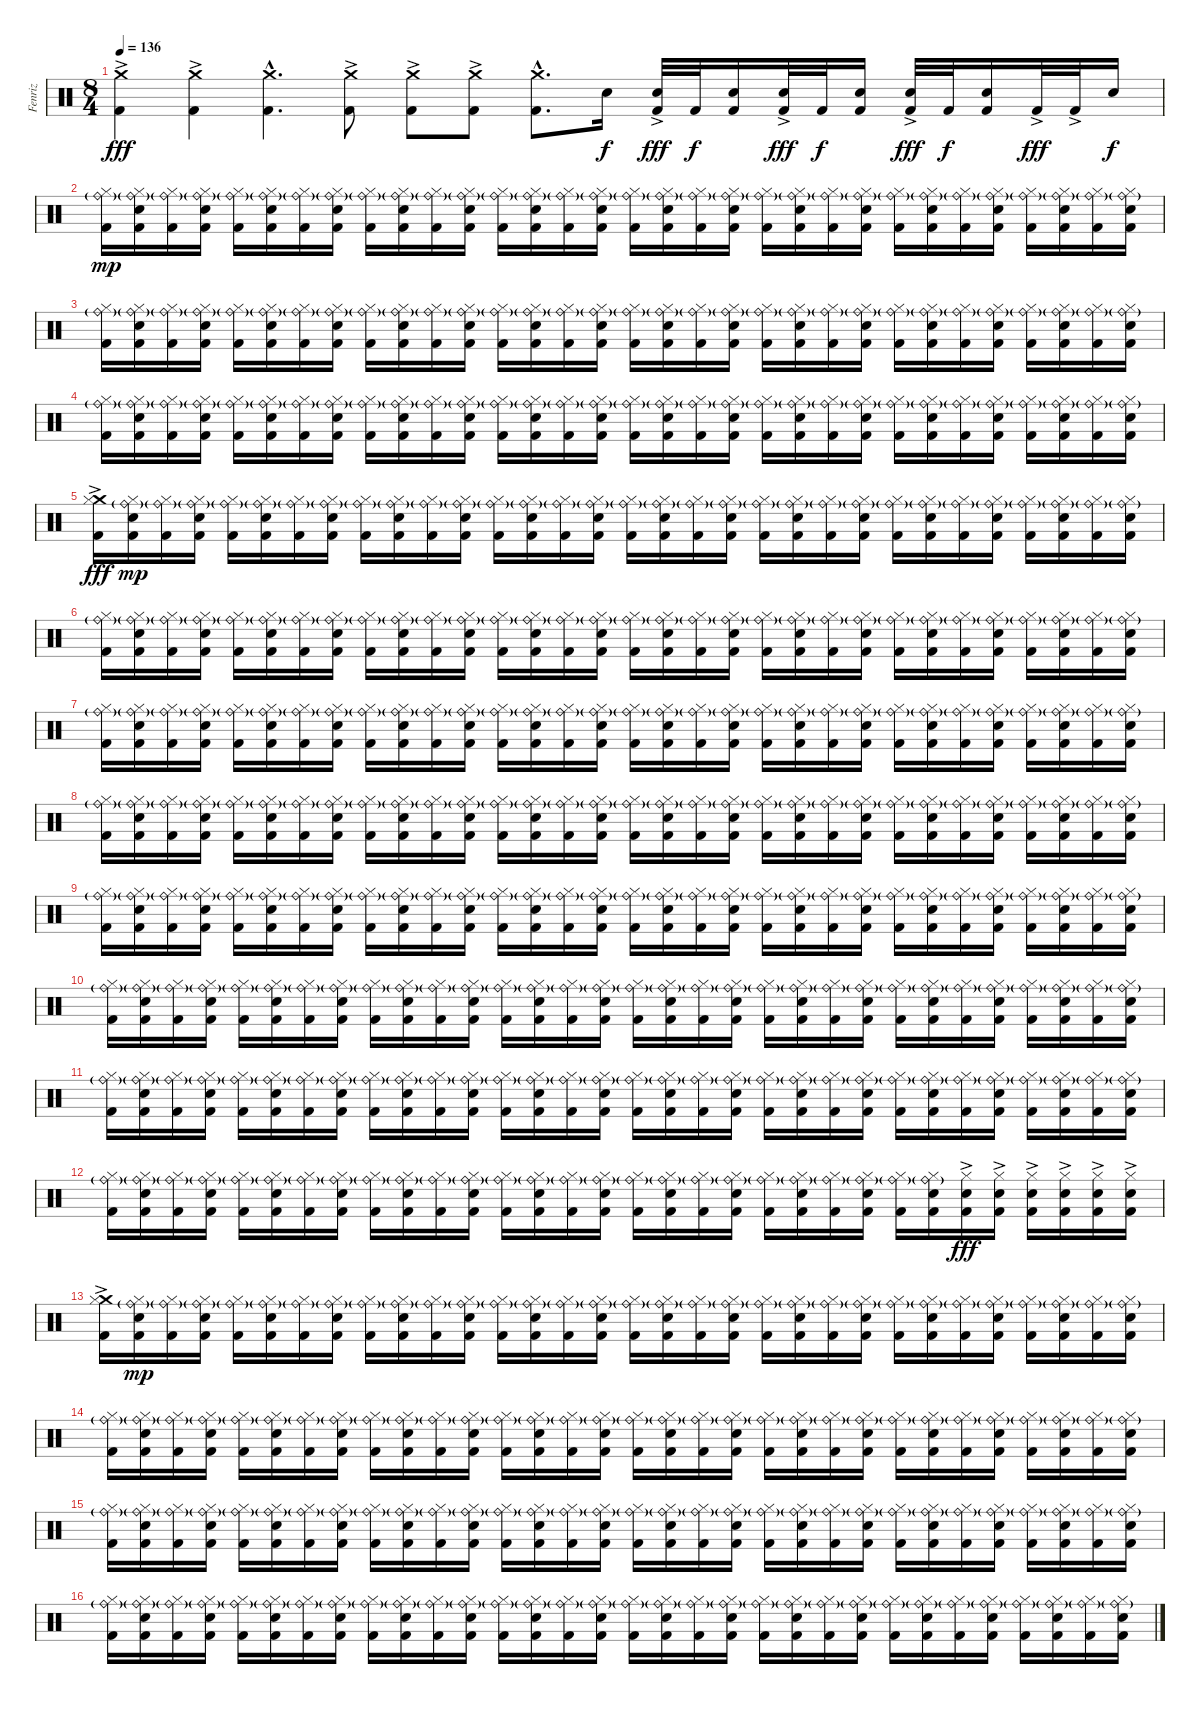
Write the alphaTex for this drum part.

\track ("Fenriz" "Fenriz") {instrument percussion}
\staff {score}
\articulation defaults
\ts (8 4)
\tempo 136
\clef neutral
\ks c
("Crash medium (hit)"{ac} "Kick (hit) 2"{ac}).4{dy fff} ("Crash medium (hit)"{ac} "Kick (hit) 2"{ac}).4 ("Crash medium (hit)"{hac} "Kick (hit) 2"{hac}).4{d} ("Crash medium (hit)"{ac} "Kick (hit) 2"{ac}).8 ("Crash medium (hit)"{ac} "Kick (hit) 2"{ac}).8 ("Crash medium (hit)"{ac} "Kick (hit) 2"{ac}).8 ("Crash medium (hit)"{hac} "Kick (hit) 2"{hac}).8{d} "Electric Snare (hit)".16{dy f} ("Snare (hit) 2"{ac} "Kick (hit) 2").32{dy fff} "Kick (hit) 2".32{dy f} ("Electric Snare (hit)" "Kick (hit) 2").16 ("Snare (hit) 2"{ac} "Kick (hit) 2").32{dy fff} "Kick (hit) 2".32{dy f} ("Electric Snare (hit)" "Kick (hit) 2").16 ("Snare (hit) 2"{ac} "Kick (hit) 2").32{dy fff} "Kick (hit) 2".32{dy f} ("Electric Snare (hit)" "Kick (hit) 2").16 "Kick (hit) 2"{ac}.32{dy fff} "Kick (hit) 2"{ac}.32 "Electric Snare (hit)".16{dy f} |
("Ride (bell)"{g} "Hi-Hat (closed)" "Kick (hit) 2").16{dy mp} ("Ride (bell)"{g} "Snare (hit) 2" "Hi-Hat (closed)" "Kick (hit) 2").16 ("Ride (bell)"{g} "Hi-Hat (closed)" "Kick (hit) 2").16 ("Ride (bell)"{g} "Snare (hit) 2" "Hi-Hat (closed)" "Kick (hit) 2").16 ("Ride (bell)"{g} "Hi-Hat (closed)" "Kick (hit) 2").16 ("Ride (bell)"{g} "Snare (hit) 2" "Hi-Hat (closed)" "Kick (hit) 2").16 ("Ride (bell)"{g} "Hi-Hat (closed)" "Kick (hit) 2").16 ("Ride (bell)"{g} "Snare (hit) 2" "Hi-Hat (closed)" "Kick (hit) 2").16 ("Ride (bell)"{g} "Hi-Hat (closed)" "Kick (hit) 2").16 ("Ride (bell)"{g} "Snare (hit) 2" "Hi-Hat (closed)" "Kick (hit) 2").16 ("Ride (bell)"{g} "Hi-Hat (closed)" "Kick (hit) 2").16 ("Ride (bell)"{g} "Snare (hit) 2" "Hi-Hat (closed)" "Kick (hit) 2").16 ("Ride (bell)"{g} "Hi-Hat (closed)" "Kick (hit) 2").16 ("Ride (bell)"{g} "Snare (hit) 2" "Hi-Hat (closed)" "Kick (hit) 2").16 ("Ride (bell)"{g} "Hi-Hat (closed)" "Kick (hit) 2").16 ("Ride (bell)"{g} "Snare (hit) 2" "Hi-Hat (closed)" "Kick (hit) 2").16 ("Ride (bell)"{g} "Hi-Hat (closed)" "Kick (hit) 2").16 ("Ride (bell)"{g} "Snare (hit) 2" "Hi-Hat (closed)" "Kick (hit) 2").16 ("Ride (bell)"{g} "Hi-Hat (closed)" "Kick (hit) 2").16 ("Ride (bell)"{g} "Snare (hit) 2" "Hi-Hat (closed)" "Kick (hit) 2").16 ("Ride (bell)"{g} "Hi-Hat (closed)" "Kick (hit) 2").16 ("Ride (bell)"{g} "Snare (hit) 2" "Hi-Hat (closed)" "Kick (hit) 2").16 ("Ride (bell)"{g} "Hi-Hat (closed)" "Kick (hit) 2").16 ("Ride (bell)"{g} "Snare (hit) 2" "Hi-Hat (closed)" "Kick (hit) 2").16 ("Ride (bell)"{g} "Hi-Hat (closed)" "Kick (hit) 2").16 ("Ride (bell)"{g} "Snare (hit) 2" "Hi-Hat (closed)" "Kick (hit) 2").16 ("Ride (bell)"{g} "Hi-Hat (closed)" "Kick (hit) 2").16 ("Ride (bell)"{g} "Snare (hit) 2" "Hi-Hat (closed)" "Kick (hit) 2").16 ("Ride (bell)"{g} "Hi-Hat (closed)" "Kick (hit) 2").16 ("Ride (bell)"{g} "Snare (hit) 2" "Hi-Hat (closed)" "Kick (hit) 2").16 ("Ride (bell)"{g} "Hi-Hat (closed)" "Kick (hit) 2").16 ("Ride (bell)"{g} "Snare (hit) 2" "Hi-Hat (closed)" "Kick (hit) 2").16 |
("Ride (bell)"{g} "Hi-Hat (closed)" "Kick (hit) 2").16 ("Ride (bell)"{g} "Snare (hit) 2" "Hi-Hat (closed)" "Kick (hit) 2").16 ("Ride (bell)"{g} "Hi-Hat (closed)" "Kick (hit) 2").16 ("Ride (bell)"{g} "Snare (hit) 2" "Hi-Hat (closed)" "Kick (hit) 2").16 ("Ride (bell)"{g} "Hi-Hat (closed)" "Kick (hit) 2").16 ("Ride (bell)"{g} "Snare (hit) 2" "Hi-Hat (closed)" "Kick (hit) 2").16 ("Ride (bell)"{g} "Hi-Hat (closed)" "Kick (hit) 2").16 ("Ride (bell)"{g} "Snare (hit) 2" "Hi-Hat (closed)" "Kick (hit) 2").16 ("Ride (bell)"{g} "Hi-Hat (closed)" "Kick (hit) 2").16 ("Ride (bell)"{g} "Snare (hit) 2" "Hi-Hat (closed)" "Kick (hit) 2").16 ("Ride (bell)"{g} "Hi-Hat (closed)" "Kick (hit) 2").16 ("Ride (bell)"{g} "Snare (hit) 2" "Hi-Hat (closed)" "Kick (hit) 2").16 ("Ride (bell)"{g} "Hi-Hat (closed)" "Kick (hit) 2").16 ("Ride (bell)"{g} "Snare (hit) 2" "Hi-Hat (closed)" "Kick (hit) 2").16 ("Ride (bell)"{g} "Hi-Hat (closed)" "Kick (hit) 2").16 ("Ride (bell)"{g} "Snare (hit) 2" "Hi-Hat (closed)" "Kick (hit) 2").16 ("Ride (bell)"{g} "Hi-Hat (closed)" "Kick (hit) 2").16 ("Ride (bell)"{g} "Snare (hit) 2" "Hi-Hat (closed)" "Kick (hit) 2").16 ("Ride (bell)"{g} "Hi-Hat (closed)" "Kick (hit) 2").16 ("Ride (bell)"{g} "Snare (hit) 2" "Hi-Hat (closed)" "Kick (hit) 2").16 ("Ride (bell)"{g} "Hi-Hat (closed)" "Kick (hit) 2").16 ("Ride (bell)"{g} "Snare (hit) 2" "Hi-Hat (closed)" "Kick (hit) 2").16 ("Ride (bell)"{g} "Hi-Hat (closed)" "Kick (hit) 2").16 ("Ride (bell)"{g} "Snare (hit) 2" "Hi-Hat (closed)" "Kick (hit) 2").16 ("Ride (bell)"{g} "Hi-Hat (closed)" "Kick (hit) 2").16 ("Ride (bell)"{g} "Snare (hit) 2" "Hi-Hat (closed)" "Kick (hit) 2").16 ("Ride (bell)"{g} "Hi-Hat (closed)" "Kick (hit) 2").16 ("Ride (bell)"{g} "Snare (hit) 2" "Hi-Hat (closed)" "Kick (hit) 2").16 ("Ride (bell)"{g} "Hi-Hat (closed)" "Kick (hit) 2").16 ("Ride (bell)"{g} "Snare (hit) 2" "Hi-Hat (closed)" "Kick (hit) 2").16 ("Ride (bell)"{g} "Hi-Hat (closed)" "Kick (hit) 2").16 ("Ride (bell)"{g} "Snare (hit) 2" "Hi-Hat (closed)" "Kick (hit) 2").16 |
("Ride (bell)"{g} "Hi-Hat (closed)" "Kick (hit) 2").16 ("Ride (bell)"{g} "Snare (hit) 2" "Hi-Hat (closed)" "Kick (hit) 2").16 ("Ride (bell)"{g} "Hi-Hat (closed)" "Kick (hit) 2").16 ("Ride (bell)"{g} "Snare (hit) 2" "Hi-Hat (closed)" "Kick (hit) 2").16 ("Ride (bell)"{g} "Hi-Hat (closed)" "Kick (hit) 2").16 ("Ride (bell)"{g} "Snare (hit) 2" "Hi-Hat (closed)" "Kick (hit) 2").16 ("Ride (bell)"{g} "Hi-Hat (closed)" "Kick (hit) 2").16 ("Ride (bell)"{g} "Snare (hit) 2" "Hi-Hat (closed)" "Kick (hit) 2").16 ("Ride (bell)"{g} "Hi-Hat (closed)" "Kick (hit) 2").16 ("Ride (bell)"{g} "Snare (hit) 2" "Hi-Hat (closed)" "Kick (hit) 2").16 ("Ride (bell)"{g} "Hi-Hat (closed)" "Kick (hit) 2").16 ("Ride (bell)"{g} "Snare (hit) 2" "Hi-Hat (closed)" "Kick (hit) 2").16 ("Ride (bell)"{g} "Hi-Hat (closed)" "Kick (hit) 2").16 ("Ride (bell)"{g} "Snare (hit) 2" "Hi-Hat (closed)" "Kick (hit) 2").16 ("Ride (bell)"{g} "Hi-Hat (closed)" "Kick (hit) 2").16 ("Ride (bell)"{g} "Snare (hit) 2" "Hi-Hat (closed)" "Kick (hit) 2").16 ("Ride (bell)"{g} "Hi-Hat (closed)" "Kick (hit) 2").16 ("Ride (bell)"{g} "Snare (hit) 2" "Hi-Hat (closed)" "Kick (hit) 2").16 ("Ride (bell)"{g} "Hi-Hat (closed)" "Kick (hit) 2").16 ("Ride (bell)"{g} "Snare (hit) 2" "Hi-Hat (closed)" "Kick (hit) 2").16 ("Ride (bell)"{g} "Hi-Hat (closed)" "Kick (hit) 2").16 ("Ride (bell)"{g} "Snare (hit) 2" "Hi-Hat (closed)" "Kick (hit) 2").16 ("Ride (bell)"{g} "Hi-Hat (closed)" "Kick (hit) 2").16 ("Ride (bell)"{g} "Snare (hit) 2" "Hi-Hat (closed)" "Kick (hit) 2").16 ("Ride (bell)"{g} "Hi-Hat (closed)" "Kick (hit) 2").16 ("Ride (bell)"{g} "Snare (hit) 2" "Hi-Hat (closed)" "Kick (hit) 2").16 ("Ride (bell)"{g} "Hi-Hat (closed)" "Kick (hit) 2").16 ("Ride (bell)"{g} "Snare (hit) 2" "Hi-Hat (closed)" "Kick (hit) 2").16 ("Ride (bell)"{g} "Hi-Hat (closed)" "Kick (hit) 2").16 ("Ride (bell)"{g} "Snare (hit) 2" "Hi-Hat (closed)" "Kick (hit) 2").16 ("Ride (bell)"{g} "Hi-Hat (closed)" "Kick (hit) 2").16 ("Ride (bell)"{g} "Snare (hit) 2" "Hi-Hat (closed)" "Kick (hit) 2").16 |
("Crash medium (hit)"{ac} "Hi-Hat (closed)" "Kick (hit) 2").16{dy fff} ("Ride (bell)"{g} "Snare (hit) 2" "Hi-Hat (closed)" "Kick (hit) 2").16{dy mp} ("Ride (bell)"{g} "Hi-Hat (closed)" "Kick (hit) 2").16 ("Ride (bell)"{g} "Snare (hit) 2" "Hi-Hat (closed)" "Kick (hit) 2").16 ("Ride (bell)"{g} "Hi-Hat (closed)" "Kick (hit) 2").16 ("Ride (bell)"{g} "Snare (hit) 2" "Hi-Hat (closed)" "Kick (hit) 2").16 ("Ride (bell)"{g} "Hi-Hat (closed)" "Kick (hit) 2").16 ("Ride (bell)"{g} "Snare (hit) 2" "Hi-Hat (closed)" "Kick (hit) 2").16 ("Ride (bell)"{g} "Hi-Hat (closed)" "Kick (hit) 2").16 ("Ride (bell)"{g} "Snare (hit) 2" "Hi-Hat (closed)" "Kick (hit) 2").16 ("Ride (bell)"{g} "Hi-Hat (closed)" "Kick (hit) 2").16 ("Ride (bell)"{g} "Snare (hit) 2" "Hi-Hat (closed)" "Kick (hit) 2").16 ("Ride (bell)"{g} "Hi-Hat (closed)" "Kick (hit) 2").16 ("Ride (bell)"{g} "Snare (hit) 2" "Hi-Hat (closed)" "Kick (hit) 2").16 ("Ride (bell)"{g} "Hi-Hat (closed)" "Kick (hit) 2").16 ("Ride (bell)"{g} "Snare (hit) 2" "Hi-Hat (closed)" "Kick (hit) 2").16 ("Ride (bell)"{g} "Hi-Hat (closed)" "Kick (hit) 2").16 ("Ride (bell)"{g} "Snare (hit) 2" "Hi-Hat (closed)" "Kick (hit) 2").16 ("Ride (bell)"{g} "Hi-Hat (closed)" "Kick (hit) 2").16 ("Ride (bell)"{g} "Snare (hit) 2" "Hi-Hat (closed)" "Kick (hit) 2").16 ("Ride (bell)"{g} "Hi-Hat (closed)" "Kick (hit) 2").16 ("Ride (bell)"{g} "Snare (hit) 2" "Hi-Hat (closed)" "Kick (hit) 2").16 ("Ride (bell)"{g} "Hi-Hat (closed)" "Kick (hit) 2").16 ("Ride (bell)"{g} "Snare (hit) 2" "Hi-Hat (closed)" "Kick (hit) 2").16 ("Ride (bell)"{g} "Hi-Hat (closed)" "Kick (hit) 2").16 ("Ride (bell)"{g} "Snare (hit) 2" "Hi-Hat (closed)" "Kick (hit) 2").16 ("Ride (bell)"{g} "Hi-Hat (closed)" "Kick (hit) 2").16 ("Ride (bell)"{g} "Snare (hit) 2" "Hi-Hat (closed)" "Kick (hit) 2").16 ("Ride (bell)"{g} "Hi-Hat (closed)" "Kick (hit) 2").16 ("Ride (bell)"{g} "Snare (hit) 2" "Hi-Hat (closed)" "Kick (hit) 2").16 ("Ride (bell)"{g} "Hi-Hat (closed)" "Kick (hit) 2").16 ("Ride (bell)"{g} "Snare (hit) 2" "Hi-Hat (closed)" "Kick (hit) 2").16 |
("Ride (bell)"{g} "Hi-Hat (closed)" "Kick (hit) 2").16 ("Ride (bell)"{g} "Snare (hit) 2" "Hi-Hat (closed)" "Kick (hit) 2").16 ("Ride (bell)"{g} "Hi-Hat (closed)" "Kick (hit) 2").16 ("Ride (bell)"{g} "Snare (hit) 2" "Hi-Hat (closed)" "Kick (hit) 2").16 ("Ride (bell)"{g} "Hi-Hat (closed)" "Kick (hit) 2").16 ("Ride (bell)"{g} "Snare (hit) 2" "Hi-Hat (closed)" "Kick (hit) 2").16 ("Ride (bell)"{g} "Hi-Hat (closed)" "Kick (hit) 2").16 ("Ride (bell)"{g} "Snare (hit) 2" "Hi-Hat (closed)" "Kick (hit) 2").16 ("Ride (bell)"{g} "Hi-Hat (closed)" "Kick (hit) 2").16 ("Ride (bell)"{g} "Snare (hit) 2" "Hi-Hat (closed)" "Kick (hit) 2").16 ("Ride (bell)"{g} "Hi-Hat (closed)" "Kick (hit) 2").16 ("Ride (bell)"{g} "Snare (hit) 2" "Hi-Hat (closed)" "Kick (hit) 2").16 ("Ride (bell)"{g} "Hi-Hat (closed)" "Kick (hit) 2").16 ("Ride (bell)"{g} "Snare (hit) 2" "Hi-Hat (closed)" "Kick (hit) 2").16 ("Ride (bell)"{g} "Hi-Hat (closed)" "Kick (hit) 2").16 ("Ride (bell)"{g} "Snare (hit) 2" "Hi-Hat (closed)" "Kick (hit) 2").16 ("Ride (bell)"{g} "Hi-Hat (closed)" "Kick (hit) 2").16 ("Ride (bell)"{g} "Snare (hit) 2" "Hi-Hat (closed)" "Kick (hit) 2").16 ("Ride (bell)"{g} "Hi-Hat (closed)" "Kick (hit) 2").16 ("Ride (bell)"{g} "Snare (hit) 2" "Hi-Hat (closed)" "Kick (hit) 2").16 ("Ride (bell)"{g} "Hi-Hat (closed)" "Kick (hit) 2").16 ("Ride (bell)"{g} "Snare (hit) 2" "Hi-Hat (closed)" "Kick (hit) 2").16 ("Ride (bell)"{g} "Hi-Hat (closed)" "Kick (hit) 2").16 ("Ride (bell)"{g} "Snare (hit) 2" "Hi-Hat (closed)" "Kick (hit) 2").16 ("Ride (bell)"{g} "Hi-Hat (closed)" "Kick (hit) 2").16 ("Ride (bell)"{g} "Snare (hit) 2" "Hi-Hat (closed)" "Kick (hit) 2").16 ("Ride (bell)"{g} "Hi-Hat (closed)" "Kick (hit) 2").16 ("Ride (bell)"{g} "Snare (hit) 2" "Hi-Hat (closed)" "Kick (hit) 2").16 ("Ride (bell)"{g} "Hi-Hat (closed)" "Kick (hit) 2").16 ("Ride (bell)"{g} "Snare (hit) 2" "Hi-Hat (closed)" "Kick (hit) 2").16 ("Ride (bell)"{g} "Hi-Hat (closed)" "Kick (hit) 2").16 ("Ride (bell)"{g} "Snare (hit) 2" "Hi-Hat (closed)" "Kick (hit) 2").16 |
("Ride (bell)"{g} "Hi-Hat (closed)" "Kick (hit) 2").16 ("Ride (bell)"{g} "Snare (hit) 2" "Hi-Hat (closed)" "Kick (hit) 2").16 ("Ride (bell)"{g} "Hi-Hat (closed)" "Kick (hit) 2").16 ("Ride (bell)"{g} "Snare (hit) 2" "Hi-Hat (closed)" "Kick (hit) 2").16 ("Ride (bell)"{g} "Hi-Hat (closed)" "Kick (hit) 2").16 ("Ride (bell)"{g} "Snare (hit) 2" "Hi-Hat (closed)" "Kick (hit) 2").16 ("Ride (bell)"{g} "Hi-Hat (closed)" "Kick (hit) 2").16 ("Ride (bell)"{g} "Snare (hit) 2" "Hi-Hat (closed)" "Kick (hit) 2").16 ("Ride (bell)"{g} "Hi-Hat (closed)" "Kick (hit) 2").16 ("Ride (bell)"{g} "Snare (hit) 2" "Hi-Hat (closed)" "Kick (hit) 2").16 ("Ride (bell)"{g} "Hi-Hat (closed)" "Kick (hit) 2").16 ("Ride (bell)"{g} "Snare (hit) 2" "Hi-Hat (closed)" "Kick (hit) 2").16 ("Ride (bell)"{g} "Hi-Hat (closed)" "Kick (hit) 2").16 ("Ride (bell)"{g} "Snare (hit) 2" "Hi-Hat (closed)" "Kick (hit) 2").16 ("Ride (bell)"{g} "Hi-Hat (closed)" "Kick (hit) 2").16 ("Ride (bell)"{g} "Snare (hit) 2" "Hi-Hat (closed)" "Kick (hit) 2").16 ("Ride (bell)"{g} "Hi-Hat (closed)" "Kick (hit) 2").16 ("Ride (bell)"{g} "Snare (hit) 2" "Hi-Hat (closed)" "Kick (hit) 2").16 ("Ride (bell)"{g} "Hi-Hat (closed)" "Kick (hit) 2").16 ("Ride (bell)"{g} "Snare (hit) 2" "Hi-Hat (closed)" "Kick (hit) 2").16 ("Ride (bell)"{g} "Hi-Hat (closed)" "Kick (hit) 2").16 ("Ride (bell)"{g} "Snare (hit) 2" "Hi-Hat (closed)" "Kick (hit) 2").16 ("Ride (bell)"{g} "Hi-Hat (closed)" "Kick (hit) 2").16 ("Ride (bell)"{g} "Snare (hit) 2" "Hi-Hat (closed)" "Kick (hit) 2").16 ("Ride (bell)"{g} "Hi-Hat (closed)" "Kick (hit) 2").16 ("Ride (bell)"{g} "Snare (hit) 2" "Hi-Hat (closed)" "Kick (hit) 2").16 ("Ride (bell)"{g} "Hi-Hat (closed)" "Kick (hit) 2").16 ("Ride (bell)"{g} "Snare (hit) 2" "Hi-Hat (closed)" "Kick (hit) 2").16 ("Ride (bell)"{g} "Hi-Hat (closed)" "Kick (hit) 2").16 ("Ride (bell)"{g} "Snare (hit) 2" "Hi-Hat (closed)" "Kick (hit) 2").16 ("Ride (bell)"{g} "Hi-Hat (closed)" "Kick (hit) 2").16 ("Ride (bell)"{g} "Snare (hit) 2" "Hi-Hat (closed)" "Kick (hit) 2").16 |
("Ride (bell)"{g} "Hi-Hat (closed)" "Kick (hit) 2").16 ("Ride (bell)"{g} "Snare (hit) 2" "Hi-Hat (closed)" "Kick (hit) 2").16 ("Ride (bell)"{g} "Hi-Hat (closed)" "Kick (hit) 2").16 ("Ride (bell)"{g} "Snare (hit) 2" "Hi-Hat (closed)" "Kick (hit) 2").16 ("Ride (bell)"{g} "Hi-Hat (closed)" "Kick (hit) 2").16 ("Ride (bell)"{g} "Snare (hit) 2" "Hi-Hat (closed)" "Kick (hit) 2").16 ("Ride (bell)"{g} "Hi-Hat (closed)" "Kick (hit) 2").16 ("Ride (bell)"{g} "Snare (hit) 2" "Hi-Hat (closed)" "Kick (hit) 2").16 ("Ride (bell)"{g} "Hi-Hat (closed)" "Kick (hit) 2").16 ("Ride (bell)"{g} "Snare (hit) 2" "Hi-Hat (closed)" "Kick (hit) 2").16 ("Ride (bell)"{g} "Hi-Hat (closed)" "Kick (hit) 2").16 ("Ride (bell)"{g} "Snare (hit) 2" "Hi-Hat (closed)" "Kick (hit) 2").16 ("Ride (bell)"{g} "Hi-Hat (closed)" "Kick (hit) 2").16 ("Ride (bell)"{g} "Snare (hit) 2" "Hi-Hat (closed)" "Kick (hit) 2").16 ("Ride (bell)"{g} "Hi-Hat (closed)" "Kick (hit) 2").16 ("Ride (bell)"{g} "Snare (hit) 2" "Hi-Hat (closed)" "Kick (hit) 2").16 ("Ride (bell)"{g} "Hi-Hat (closed)" "Kick (hit) 2").16 ("Ride (bell)"{g} "Snare (hit) 2" "Hi-Hat (closed)" "Kick (hit) 2").16 ("Ride (bell)"{g} "Hi-Hat (closed)" "Kick (hit) 2").16 ("Ride (bell)"{g} "Snare (hit) 2" "Hi-Hat (closed)" "Kick (hit) 2").16 ("Ride (bell)"{g} "Hi-Hat (closed)" "Kick (hit) 2").16 ("Ride (bell)"{g} "Snare (hit) 2" "Hi-Hat (closed)" "Kick (hit) 2").16 ("Ride (bell)"{g} "Hi-Hat (closed)" "Kick (hit) 2").16 ("Ride (bell)"{g} "Snare (hit) 2" "Hi-Hat (closed)" "Kick (hit) 2").16 ("Ride (bell)"{g} "Hi-Hat (closed)" "Kick (hit) 2").16 ("Ride (bell)"{g} "Snare (hit) 2" "Hi-Hat (closed)" "Kick (hit) 2").16 ("Ride (bell)"{g} "Hi-Hat (closed)" "Kick (hit) 2").16 ("Ride (bell)"{g} "Snare (hit) 2" "Hi-Hat (closed)" "Kick (hit) 2").16 ("Ride (bell)"{g} "Hi-Hat (closed)" "Kick (hit) 2").16 ("Ride (bell)"{g} "Snare (hit) 2" "Hi-Hat (closed)" "Kick (hit) 2").16 ("Ride (bell)"{g} "Hi-Hat (closed)" "Kick (hit) 2").16 ("Ride (bell)"{g} "Snare (hit) 2" "Hi-Hat (closed)" "Kick (hit) 2").16 |
("Ride (bell)"{g} "Hi-Hat (closed)" "Kick (hit) 2").16 ("Ride (bell)"{g} "Snare (hit) 2" "Hi-Hat (closed)" "Kick (hit) 2").16 ("Ride (bell)"{g} "Hi-Hat (closed)" "Kick (hit) 2").16 ("Ride (bell)"{g} "Snare (hit) 2" "Hi-Hat (closed)" "Kick (hit) 2").16 ("Ride (bell)"{g} "Hi-Hat (closed)" "Kick (hit) 2").16 ("Ride (bell)"{g} "Snare (hit) 2" "Hi-Hat (closed)" "Kick (hit) 2").16 ("Ride (bell)"{g} "Hi-Hat (closed)" "Kick (hit) 2").16 ("Ride (bell)"{g} "Snare (hit) 2" "Hi-Hat (closed)" "Kick (hit) 2").16 ("Ride (bell)"{g} "Hi-Hat (closed)" "Kick (hit) 2").16 ("Ride (bell)"{g} "Snare (hit) 2" "Hi-Hat (closed)" "Kick (hit) 2").16 ("Ride (bell)"{g} "Hi-Hat (closed)" "Kick (hit) 2").16 ("Ride (bell)"{g} "Snare (hit) 2" "Hi-Hat (closed)" "Kick (hit) 2").16 ("Ride (bell)"{g} "Hi-Hat (closed)" "Kick (hit) 2").16 ("Ride (bell)"{g} "Snare (hit) 2" "Hi-Hat (closed)" "Kick (hit) 2").16 ("Ride (bell)"{g} "Hi-Hat (closed)" "Kick (hit) 2").16 ("Ride (bell)"{g} "Snare (hit) 2" "Hi-Hat (closed)" "Kick (hit) 2").16 ("Ride (bell)"{g} "Hi-Hat (closed)" "Kick (hit) 2").16 ("Ride (bell)"{g} "Snare (hit) 2" "Hi-Hat (closed)" "Kick (hit) 2").16 ("Ride (bell)"{g} "Hi-Hat (closed)" "Kick (hit) 2").16 ("Ride (bell)"{g} "Snare (hit) 2" "Hi-Hat (closed)" "Kick (hit) 2").16 ("Ride (bell)"{g} "Hi-Hat (closed)" "Kick (hit) 2").16 ("Ride (bell)"{g} "Snare (hit) 2" "Hi-Hat (closed)" "Kick (hit) 2").16 ("Ride (bell)"{g} "Hi-Hat (closed)" "Kick (hit) 2").16 ("Ride (bell)"{g} "Snare (hit) 2" "Hi-Hat (closed)" "Kick (hit) 2").16 ("Ride (bell)"{g} "Hi-Hat (closed)" "Kick (hit) 2").16 ("Ride (bell)"{g} "Snare (hit) 2" "Hi-Hat (closed)" "Kick (hit) 2").16 ("Ride (bell)"{g} "Hi-Hat (closed)" "Kick (hit) 2").16 ("Ride (bell)"{g} "Snare (hit) 2" "Hi-Hat (closed)" "Kick (hit) 2").16 ("Ride (bell)"{g} "Hi-Hat (closed)" "Kick (hit) 2").16 ("Ride (bell)"{g} "Snare (hit) 2" "Hi-Hat (closed)" "Kick (hit) 2").16 ("Ride (bell)"{g} "Hi-Hat (closed)" "Kick (hit) 2").16 ("Ride (bell)"{g} "Snare (hit) 2" "Hi-Hat (closed)" "Kick (hit) 2").16 |
("Ride (bell)"{g} "Hi-Hat (closed)" "Kick (hit) 2").16 ("Ride (bell)"{g} "Snare (hit) 2" "Hi-Hat (closed)" "Kick (hit) 2").16 ("Ride (bell)"{g} "Hi-Hat (closed)" "Kick (hit) 2").16 ("Ride (bell)"{g} "Snare (hit) 2" "Hi-Hat (closed)" "Kick (hit) 2").16 ("Ride (bell)"{g} "Hi-Hat (closed)" "Kick (hit) 2").16 ("Ride (bell)"{g} "Snare (hit) 2" "Hi-Hat (closed)" "Kick (hit) 2").16 ("Ride (bell)"{g} "Hi-Hat (closed)" "Kick (hit) 2").16 ("Ride (bell)"{g} "Snare (hit) 2" "Hi-Hat (closed)" "Kick (hit) 2").16 ("Ride (bell)"{g} "Hi-Hat (closed)" "Kick (hit) 2").16 ("Ride (bell)"{g} "Snare (hit) 2" "Hi-Hat (closed)" "Kick (hit) 2").16 ("Ride (bell)"{g} "Hi-Hat (closed)" "Kick (hit) 2").16 ("Ride (bell)"{g} "Snare (hit) 2" "Hi-Hat (closed)" "Kick (hit) 2").16 ("Ride (bell)"{g} "Hi-Hat (closed)" "Kick (hit) 2").16 ("Ride (bell)"{g} "Snare (hit) 2" "Hi-Hat (closed)" "Kick (hit) 2").16 ("Ride (bell)"{g} "Hi-Hat (closed)" "Kick (hit) 2").16 ("Ride (bell)"{g} "Snare (hit) 2" "Hi-Hat (closed)" "Kick (hit) 2").16 ("Ride (bell)"{g} "Hi-Hat (closed)" "Kick (hit) 2").16 ("Ride (bell)"{g} "Snare (hit) 2" "Hi-Hat (closed)" "Kick (hit) 2").16 ("Ride (bell)"{g} "Hi-Hat (closed)" "Kick (hit) 2").16 ("Ride (bell)"{g} "Snare (hit) 2" "Hi-Hat (closed)" "Kick (hit) 2").16 ("Ride (bell)"{g} "Hi-Hat (closed)" "Kick (hit) 2").16 ("Ride (bell)"{g} "Snare (hit) 2" "Hi-Hat (closed)" "Kick (hit) 2").16 ("Ride (bell)"{g} "Hi-Hat (closed)" "Kick (hit) 2").16 ("Ride (bell)"{g} "Snare (hit) 2" "Hi-Hat (closed)" "Kick (hit) 2").16 ("Ride (bell)"{g} "Hi-Hat (closed)" "Kick (hit) 2").16 ("Ride (bell)"{g} "Snare (hit) 2" "Hi-Hat (closed)" "Kick (hit) 2").16 ("Ride (bell)"{g} "Hi-Hat (closed)" "Kick (hit) 2").16 ("Ride (bell)"{g} "Snare (hit) 2" "Hi-Hat (closed)" "Kick (hit) 2").16 ("Ride (bell)"{g} "Hi-Hat (closed)" "Kick (hit) 2").16 ("Ride (bell)"{g} "Snare (hit) 2" "Hi-Hat (closed)" "Kick (hit) 2").16 ("Ride (bell)"{g} "Hi-Hat (closed)" "Kick (hit) 2").16 ("Ride (bell)"{g} "Snare (hit) 2" "Hi-Hat (closed)" "Kick (hit) 2").16 |
("Ride (bell)"{g} "Hi-Hat (closed)" "Kick (hit) 2").16 ("Ride (bell)"{g} "Snare (hit) 2" "Hi-Hat (closed)" "Kick (hit) 2").16 ("Ride (bell)"{g} "Hi-Hat (closed)" "Kick (hit) 2").16 ("Ride (bell)"{g} "Snare (hit) 2" "Hi-Hat (closed)" "Kick (hit) 2").16 ("Ride (bell)"{g} "Hi-Hat (closed)" "Kick (hit) 2").16 ("Ride (bell)"{g} "Snare (hit) 2" "Hi-Hat (closed)" "Kick (hit) 2").16 ("Ride (bell)"{g} "Hi-Hat (closed)" "Kick (hit) 2").16 ("Ride (bell)"{g} "Snare (hit) 2" "Hi-Hat (closed)" "Kick (hit) 2").16 ("Ride (bell)"{g} "Hi-Hat (closed)" "Kick (hit) 2").16 ("Ride (bell)"{g} "Snare (hit) 2" "Hi-Hat (closed)" "Kick (hit) 2").16 ("Ride (bell)"{g} "Hi-Hat (closed)" "Kick (hit) 2").16 ("Ride (bell)"{g} "Snare (hit) 2" "Hi-Hat (closed)" "Kick (hit) 2").16 ("Ride (bell)"{g} "Hi-Hat (closed)" "Kick (hit) 2").16 ("Ride (bell)"{g} "Snare (hit) 2" "Hi-Hat (closed)" "Kick (hit) 2").16 ("Ride (bell)"{g} "Hi-Hat (closed)" "Kick (hit) 2").16 ("Ride (bell)"{g} "Snare (hit) 2" "Hi-Hat (closed)" "Kick (hit) 2").16 ("Ride (bell)"{g} "Hi-Hat (closed)" "Kick (hit) 2").16 ("Ride (bell)"{g} "Snare (hit) 2" "Hi-Hat (closed)" "Kick (hit) 2").16 ("Ride (bell)"{g} "Hi-Hat (closed)" "Kick (hit) 2").16 ("Ride (bell)"{g} "Snare (hit) 2" "Hi-Hat (closed)" "Kick (hit) 2").16 ("Ride (bell)"{g} "Hi-Hat (closed)" "Kick (hit) 2").16 ("Ride (bell)"{g} "Snare (hit) 2" "Hi-Hat (closed)" "Kick (hit) 2").16 ("Ride (bell)"{g} "Hi-Hat (closed)" "Kick (hit) 2").16 ("Ride (bell)"{g} "Snare (hit) 2" "Hi-Hat (closed)" "Kick (hit) 2").16 ("Ride (bell)"{g} "Hi-Hat (closed)" "Kick (hit) 2").16 ("Ride (bell)"{g} "Snare (hit) 2" "Hi-Hat (closed)" "Kick (hit) 2").16 ("Ride (bell)"{g} "Hi-Hat (closed)" "Kick (hit) 2").16 ("Ride (bell)"{g} "Snare (hit) 2" "Hi-Hat (closed)" "Kick (hit) 2").16 ("Ride (bell)"{g} "Hi-Hat (closed)" "Kick (hit) 2").16 ("Ride (bell)"{g} "Snare (hit) 2" "Hi-Hat (closed)" "Kick (hit) 2").16 ("Ride (bell)"{g} "Hi-Hat (closed)" "Kick (hit) 2").16 ("Ride (bell)"{g} "Snare (hit) 2" "Hi-Hat (closed)" "Kick (hit) 2").16 |
("Ride (bell)"{g} "Hi-Hat (closed)" "Kick (hit) 2").16 ("Ride (bell)"{g} "Snare (hit) 2" "Hi-Hat (closed)" "Kick (hit) 2").16 ("Ride (bell)"{g} "Hi-Hat (closed)" "Kick (hit) 2").16 ("Ride (bell)"{g} "Snare (hit) 2" "Hi-Hat (closed)" "Kick (hit) 2").16 ("Ride (bell)"{g} "Hi-Hat (closed)" "Kick (hit) 2").16 ("Ride (bell)"{g} "Snare (hit) 2" "Hi-Hat (closed)" "Kick (hit) 2").16 ("Ride (bell)"{g} "Hi-Hat (closed)" "Kick (hit) 2").16 ("Ride (bell)"{g} "Snare (hit) 2" "Hi-Hat (closed)" "Kick (hit) 2").16 ("Ride (bell)"{g} "Hi-Hat (closed)" "Kick (hit) 2").16 ("Ride (bell)"{g} "Snare (hit) 2" "Hi-Hat (closed)" "Kick (hit) 2").16 ("Ride (bell)"{g} "Hi-Hat (closed)" "Kick (hit) 2").16 ("Ride (bell)"{g} "Snare (hit) 2" "Hi-Hat (closed)" "Kick (hit) 2").16 ("Ride (bell)"{g} "Hi-Hat (closed)" "Kick (hit) 2").16 ("Ride (bell)"{g} "Snare (hit) 2" "Hi-Hat (closed)" "Kick (hit) 2").16 ("Ride (bell)"{g} "Hi-Hat (closed)" "Kick (hit) 2").16 ("Ride (bell)"{g} "Snare (hit) 2" "Hi-Hat (closed)" "Kick (hit) 2").16 ("Ride (bell)"{g} "Hi-Hat (closed)" "Kick (hit) 2").16 ("Ride (bell)"{g} "Snare (hit) 2" "Hi-Hat (closed)" "Kick (hit) 2").16 ("Ride (bell)"{g} "Hi-Hat (closed)" "Kick (hit) 2").16 ("Ride (bell)"{g} "Snare (hit) 2" "Hi-Hat (closed)" "Kick (hit) 2").16 ("Ride (bell)"{g} "Hi-Hat (closed)" "Kick (hit) 2").16 ("Ride (bell)"{g} "Snare (hit) 2" "Hi-Hat (closed)" "Kick (hit) 2").16 ("Ride (bell)"{g} "Hi-Hat (closed)" "Kick (hit) 2").16 ("Ride (bell)"{g} "Snare (hit) 2" "Hi-Hat (closed)" "Kick (hit) 2").16 ("Ride (bell)"{g} "Hi-Hat (closed)" "Kick (hit) 2").16 ("Ride (bell)"{g} "Snare (hit) 2" "Hi-Hat (closed)" "Kick (hit) 2").16 ("Snare (hit) 2"{ac} "Hi-Hat (closed)" "Kick (hit) 2").16{dy fff} ("Snare (hit) 2"{ac} "Hi-Hat (closed)" "Kick (hit) 2").16 ("Snare (hit) 2"{ac} "Hi-Hat (closed)" "Kick (hit) 2").16 ("Snare (hit) 2"{ac} "Hi-Hat (closed)" "Kick (hit) 2").16 ("Snare (hit) 2"{ac} "Hi-Hat (closed)" "Kick (hit) 2").16 ("Snare (hit) 2"{ac} "Hi-Hat (closed)" "Kick (hit) 2").16 |
("Crash medium (hit)"{ac} "Hi-Hat (closed)" "Kick (hit) 2").16 ("Ride (bell)"{g} "Snare (hit) 2" "Hi-Hat (closed)" "Kick (hit) 2").16{dy mp} ("Ride (bell)"{g} "Hi-Hat (closed)" "Kick (hit) 2").16 ("Ride (bell)"{g} "Snare (hit) 2" "Hi-Hat (closed)" "Kick (hit) 2").16 ("Ride (bell)"{g} "Hi-Hat (closed)" "Kick (hit) 2").16 ("Ride (bell)"{g} "Snare (hit) 2" "Hi-Hat (closed)" "Kick (hit) 2").16 ("Ride (bell)"{g} "Hi-Hat (closed)" "Kick (hit) 2").16 ("Ride (bell)"{g} "Snare (hit) 2" "Hi-Hat (closed)" "Kick (hit) 2").16 ("Ride (bell)"{g} "Hi-Hat (closed)" "Kick (hit) 2").16 ("Ride (bell)"{g} "Snare (hit) 2" "Hi-Hat (closed)" "Kick (hit) 2").16 ("Ride (bell)"{g} "Hi-Hat (closed)" "Kick (hit) 2").16 ("Ride (bell)"{g} "Snare (hit) 2" "Hi-Hat (closed)" "Kick (hit) 2").16 ("Ride (bell)"{g} "Hi-Hat (closed)" "Kick (hit) 2").16 ("Ride (bell)"{g} "Snare (hit) 2" "Hi-Hat (closed)" "Kick (hit) 2").16 ("Ride (bell)"{g} "Hi-Hat (closed)" "Kick (hit) 2").16 ("Ride (bell)"{g} "Snare (hit) 2" "Hi-Hat (closed)" "Kick (hit) 2").16 ("Ride (bell)"{g} "Hi-Hat (closed)" "Kick (hit) 2").16 ("Ride (bell)"{g} "Snare (hit) 2" "Hi-Hat (closed)" "Kick (hit) 2").16 ("Ride (bell)"{g} "Hi-Hat (closed)" "Kick (hit) 2").16 ("Ride (bell)"{g} "Snare (hit) 2" "Hi-Hat (closed)" "Kick (hit) 2").16 ("Ride (bell)"{g} "Hi-Hat (closed)" "Kick (hit) 2").16 ("Ride (bell)"{g} "Snare (hit) 2" "Hi-Hat (closed)" "Kick (hit) 2").16 ("Ride (bell)"{g} "Hi-Hat (closed)" "Kick (hit) 2").16 ("Ride (bell)"{g} "Snare (hit) 2" "Hi-Hat (closed)" "Kick (hit) 2").16 ("Ride (bell)"{g} "Hi-Hat (closed)" "Kick (hit) 2").16 ("Ride (bell)"{g} "Snare (hit) 2" "Hi-Hat (closed)" "Kick (hit) 2").16 ("Ride (bell)"{g} "Hi-Hat (closed)" "Kick (hit) 2").16 ("Ride (bell)"{g} "Snare (hit) 2" "Hi-Hat (closed)" "Kick (hit) 2").16 ("Ride (bell)"{g} "Hi-Hat (closed)" "Kick (hit) 2").16 ("Ride (bell)"{g} "Snare (hit) 2" "Hi-Hat (closed)" "Kick (hit) 2").16 ("Ride (bell)"{g} "Hi-Hat (closed)" "Kick (hit) 2").16 ("Ride (bell)"{g} "Snare (hit) 2" "Hi-Hat (closed)" "Kick (hit) 2").16 |
("Ride (bell)"{g} "Hi-Hat (closed)" "Kick (hit) 2").16 ("Ride (bell)"{g} "Snare (hit) 2" "Hi-Hat (closed)" "Kick (hit) 2").16 ("Ride (bell)"{g} "Hi-Hat (closed)" "Kick (hit) 2").16 ("Ride (bell)"{g} "Snare (hit) 2" "Hi-Hat (closed)" "Kick (hit) 2").16 ("Ride (bell)"{g} "Hi-Hat (closed)" "Kick (hit) 2").16 ("Ride (bell)"{g} "Snare (hit) 2" "Hi-Hat (closed)" "Kick (hit) 2").16 ("Ride (bell)"{g} "Hi-Hat (closed)" "Kick (hit) 2").16 ("Ride (bell)"{g} "Snare (hit) 2" "Hi-Hat (closed)" "Kick (hit) 2").16 ("Ride (bell)"{g} "Hi-Hat (closed)" "Kick (hit) 2").16 ("Ride (bell)"{g} "Snare (hit) 2" "Hi-Hat (closed)" "Kick (hit) 2").16 ("Ride (bell)"{g} "Hi-Hat (closed)" "Kick (hit) 2").16 ("Ride (bell)"{g} "Snare (hit) 2" "Hi-Hat (closed)" "Kick (hit) 2").16 ("Ride (bell)"{g} "Hi-Hat (closed)" "Kick (hit) 2").16 ("Ride (bell)"{g} "Snare (hit) 2" "Hi-Hat (closed)" "Kick (hit) 2").16 ("Ride (bell)"{g} "Hi-Hat (closed)" "Kick (hit) 2").16 ("Ride (bell)"{g} "Snare (hit) 2" "Hi-Hat (closed)" "Kick (hit) 2").16 ("Ride (bell)"{g} "Hi-Hat (closed)" "Kick (hit) 2").16 ("Ride (bell)"{g} "Snare (hit) 2" "Hi-Hat (closed)" "Kick (hit) 2").16 ("Ride (bell)"{g} "Hi-Hat (closed)" "Kick (hit) 2").16 ("Ride (bell)"{g} "Snare (hit) 2" "Hi-Hat (closed)" "Kick (hit) 2").16 ("Ride (bell)"{g} "Hi-Hat (closed)" "Kick (hit) 2").16 ("Ride (bell)"{g} "Snare (hit) 2" "Hi-Hat (closed)" "Kick (hit) 2").16 ("Ride (bell)"{g} "Hi-Hat (closed)" "Kick (hit) 2").16 ("Ride (bell)"{g} "Snare (hit) 2" "Hi-Hat (closed)" "Kick (hit) 2").16 ("Ride (bell)"{g} "Hi-Hat (closed)" "Kick (hit) 2").16 ("Ride (bell)"{g} "Snare (hit) 2" "Hi-Hat (closed)" "Kick (hit) 2").16 ("Ride (bell)"{g} "Hi-Hat (closed)" "Kick (hit) 2").16 ("Ride (bell)"{g} "Snare (hit) 2" "Hi-Hat (closed)" "Kick (hit) 2").16 ("Ride (bell)"{g} "Hi-Hat (closed)" "Kick (hit) 2").16 ("Ride (bell)"{g} "Snare (hit) 2" "Hi-Hat (closed)" "Kick (hit) 2").16 ("Ride (bell)"{g} "Hi-Hat (closed)" "Kick (hit) 2").16 ("Ride (bell)"{g} "Snare (hit) 2" "Hi-Hat (closed)" "Kick (hit) 2").16 |
("Ride (bell)"{g} "Hi-Hat (closed)" "Kick (hit) 2").16 ("Ride (bell)"{g} "Snare (hit) 2" "Hi-Hat (closed)" "Kick (hit) 2").16 ("Ride (bell)"{g} "Hi-Hat (closed)" "Kick (hit) 2").16 ("Ride (bell)"{g} "Snare (hit) 2" "Hi-Hat (closed)" "Kick (hit) 2").16 ("Ride (bell)"{g} "Hi-Hat (closed)" "Kick (hit) 2").16 ("Ride (bell)"{g} "Snare (hit) 2" "Hi-Hat (closed)" "Kick (hit) 2").16 ("Ride (bell)"{g} "Hi-Hat (closed)" "Kick (hit) 2").16 ("Ride (bell)"{g} "Snare (hit) 2" "Hi-Hat (closed)" "Kick (hit) 2").16 ("Ride (bell)"{g} "Hi-Hat (closed)" "Kick (hit) 2").16 ("Ride (bell)"{g} "Snare (hit) 2" "Hi-Hat (closed)" "Kick (hit) 2").16 ("Ride (bell)"{g} "Hi-Hat (closed)" "Kick (hit) 2").16 ("Ride (bell)"{g} "Snare (hit) 2" "Hi-Hat (closed)" "Kick (hit) 2").16 ("Ride (bell)"{g} "Hi-Hat (closed)" "Kick (hit) 2").16 ("Ride (bell)"{g} "Snare (hit) 2" "Hi-Hat (closed)" "Kick (hit) 2").16 ("Ride (bell)"{g} "Hi-Hat (closed)" "Kick (hit) 2").16 ("Ride (bell)"{g} "Snare (hit) 2" "Hi-Hat (closed)" "Kick (hit) 2").16 ("Ride (bell)"{g} "Hi-Hat (closed)" "Kick (hit) 2").16 ("Ride (bell)"{g} "Snare (hit) 2" "Hi-Hat (closed)" "Kick (hit) 2").16 ("Ride (bell)"{g} "Hi-Hat (closed)" "Kick (hit) 2").16 ("Ride (bell)"{g} "Snare (hit) 2" "Hi-Hat (closed)" "Kick (hit) 2").16 ("Ride (bell)"{g} "Hi-Hat (closed)" "Kick (hit) 2").16 ("Ride (bell)"{g} "Snare (hit) 2" "Hi-Hat (closed)" "Kick (hit) 2").16 ("Ride (bell)"{g} "Hi-Hat (closed)" "Kick (hit) 2").16 ("Ride (bell)"{g} "Snare (hit) 2" "Hi-Hat (closed)" "Kick (hit) 2").16 ("Ride (bell)"{g} "Hi-Hat (closed)" "Kick (hit) 2").16 ("Ride (bell)"{g} "Snare (hit) 2" "Hi-Hat (closed)" "Kick (hit) 2").16 ("Ride (bell)"{g} "Hi-Hat (closed)" "Kick (hit) 2").16 ("Ride (bell)"{g} "Snare (hit) 2" "Hi-Hat (closed)" "Kick (hit) 2").16 ("Ride (bell)"{g} "Hi-Hat (closed)" "Kick (hit) 2").16 ("Ride (bell)"{g} "Snare (hit) 2" "Hi-Hat (closed)" "Kick (hit) 2").16 ("Ride (bell)"{g} "Hi-Hat (closed)" "Kick (hit) 2").16 ("Ride (bell)"{g} "Snare (hit) 2" "Hi-Hat (closed)" "Kick (hit) 2").16 |
("Ride (bell)"{g} "Hi-Hat (closed)" "Kick (hit) 2").16 ("Ride (bell)"{g} "Snare (hit) 2" "Hi-Hat (closed)" "Kick (hit) 2").16 ("Ride (bell)"{g} "Hi-Hat (closed)" "Kick (hit) 2").16 ("Ride (bell)"{g} "Snare (hit) 2" "Hi-Hat (closed)" "Kick (hit) 2").16 ("Ride (bell)"{g} "Hi-Hat (closed)" "Kick (hit) 2").16 ("Ride (bell)"{g} "Snare (hit) 2" "Hi-Hat (closed)" "Kick (hit) 2").16 ("Ride (bell)"{g} "Hi-Hat (closed)" "Kick (hit) 2").16 ("Ride (bell)"{g} "Snare (hit) 2" "Hi-Hat (closed)" "Kick (hit) 2").16 ("Ride (bell)"{g} "Hi-Hat (closed)" "Kick (hit) 2").16 ("Ride (bell)"{g} "Snare (hit) 2" "Hi-Hat (closed)" "Kick (hit) 2").16 ("Ride (bell)"{g} "Hi-Hat (closed)" "Kick (hit) 2").16 ("Ride (bell)"{g} "Snare (hit) 2" "Hi-Hat (closed)" "Kick (hit) 2").16 ("Ride (bell)"{g} "Hi-Hat (closed)" "Kick (hit) 2").16 ("Ride (bell)"{g} "Snare (hit) 2" "Hi-Hat (closed)" "Kick (hit) 2").16 ("Ride (bell)"{g} "Hi-Hat (closed)" "Kick (hit) 2").16 ("Ride (bell)"{g} "Snare (hit) 2" "Hi-Hat (closed)" "Kick (hit) 2").16 ("Ride (bell)"{g} "Hi-Hat (closed)" "Kick (hit) 2").16 ("Ride (bell)"{g} "Snare (hit) 2" "Hi-Hat (closed)" "Kick (hit) 2").16 ("Ride (bell)"{g} "Hi-Hat (closed)" "Kick (hit) 2").16 ("Ride (bell)"{g} "Snare (hit) 2" "Hi-Hat (closed)" "Kick (hit) 2").16 ("Ride (bell)"{g} "Hi-Hat (closed)" "Kick (hit) 2").16 ("Ride (bell)"{g} "Snare (hit) 2" "Hi-Hat (closed)" "Kick (hit) 2").16 ("Ride (bell)"{g} "Hi-Hat (closed)" "Kick (hit) 2").16 ("Ride (bell)"{g} "Snare (hit) 2" "Hi-Hat (closed)" "Kick (hit) 2").16 ("Ride (bell)"{g} "Hi-Hat (closed)" "Kick (hit) 2").16 ("Ride (bell)"{g} "Snare (hit) 2" "Hi-Hat (closed)" "Kick (hit) 2").16 ("Ride (bell)"{g} "Hi-Hat (closed)" "Kick (hit) 2").16 ("Ride (bell)"{g} "Snare (hit) 2" "Hi-Hat (closed)" "Kick (hit) 2").16 ("Ride (bell)"{g} "Hi-Hat (closed)" "Kick (hit) 2").16 ("Ride (bell)"{g} "Snare (hit) 2" "Hi-Hat (closed)" "Kick (hit) 2").16 ("Ride (bell)"{g} "Hi-Hat (closed)" "Kick (hit) 2").16 ("Ride (bell)"{g} "Snare (hit) 2" "Hi-Hat (closed)" "Kick (hit) 2").16
